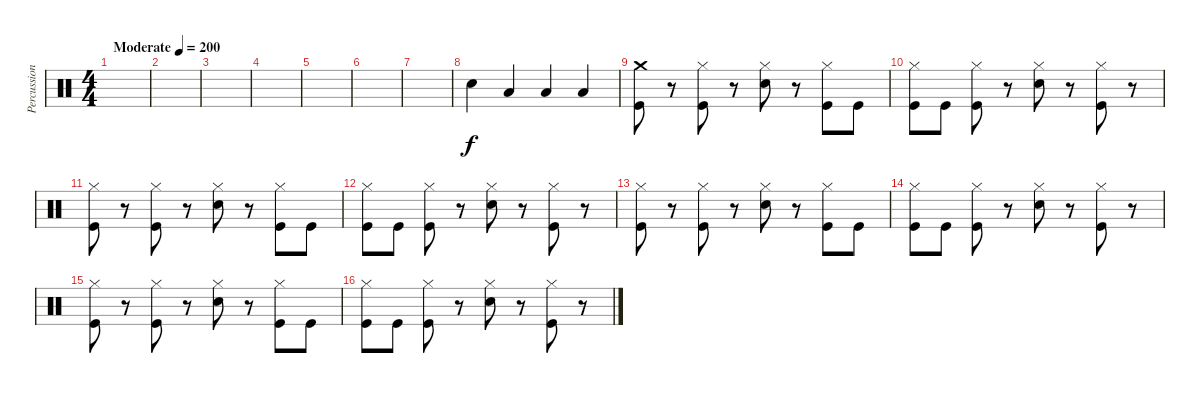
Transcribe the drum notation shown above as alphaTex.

\track ("Percussion" "Percussion") {instrument percussion}
\staff {score}
\articulation defaults
\ts (4 4)
\tempo (200 "Moderate")
\clef neutral
\ks c
|
|
|
|
|
|
|
"Snare (hit) 2".4 "Low Floor Tom (hit)".4 "Low Floor Tom (hit)".4 "Low Floor Tom (hit)".4 |
("Crash medium (hit)" "Kick (hit)").8 r.8 ("Hi-Hat (closed)" "Kick (hit)").8 r.8 ("Hi-Hat (closed)" "Snare (hit) 2").8 r.8 ("Hi-Hat (closed)" "Kick (hit)").8 "Kick (hit)".8 |
("Hi-Hat (closed)" "Kick (hit)").8 "Kick (hit)".8 ("Hi-Hat (closed)" "Kick (hit)").8 r.8 ("Hi-Hat (closed)" "Snare (hit) 2").8 r.8 ("Hi-Hat (closed)" "Kick (hit)").8 r.8 |
("Hi-Hat (closed)" "Kick (hit)").8 r.8 ("Hi-Hat (closed)" "Kick (hit)").8 r.8 ("Hi-Hat (closed)" "Snare (hit) 2").8 r.8 ("Hi-Hat (closed)" "Kick (hit)").8 "Kick (hit)".8 |
("Hi-Hat (closed)" "Kick (hit)").8 "Kick (hit)".8 ("Hi-Hat (closed)" "Kick (hit)").8 r.8 ("Hi-Hat (closed)" "Snare (hit) 2").8 r.8 ("Hi-Hat (closed)" "Kick (hit)").8 r.8 |
("Hi-Hat (closed)" "Kick (hit)").8 r.8 ("Hi-Hat (closed)" "Kick (hit)").8 r.8 ("Hi-Hat (closed)" "Snare (hit) 2").8 r.8 ("Hi-Hat (closed)" "Kick (hit)").8 "Kick (hit)".8 |
("Hi-Hat (closed)" "Kick (hit)").8 "Kick (hit)".8 ("Hi-Hat (closed)" "Kick (hit)").8 r.8 ("Hi-Hat (closed)" "Snare (hit) 2").8 r.8 ("Hi-Hat (closed)" "Kick (hit)").8 r.8 |
("Hi-Hat (closed)" "Kick (hit)").8 r.8 ("Hi-Hat (closed)" "Kick (hit)").8 r.8 ("Hi-Hat (closed)" "Snare (hit) 2").8 r.8 ("Hi-Hat (closed)" "Kick (hit)").8 "Kick (hit)".8 |
("Hi-Hat (closed)" "Kick (hit)").8 "Kick (hit)".8 ("Hi-Hat (closed)" "Kick (hit)").8 r.8 ("Hi-Hat (closed)" "Snare (hit) 2").8 r.8 ("Hi-Hat (closed)" "Kick (hit)").8 r.8
